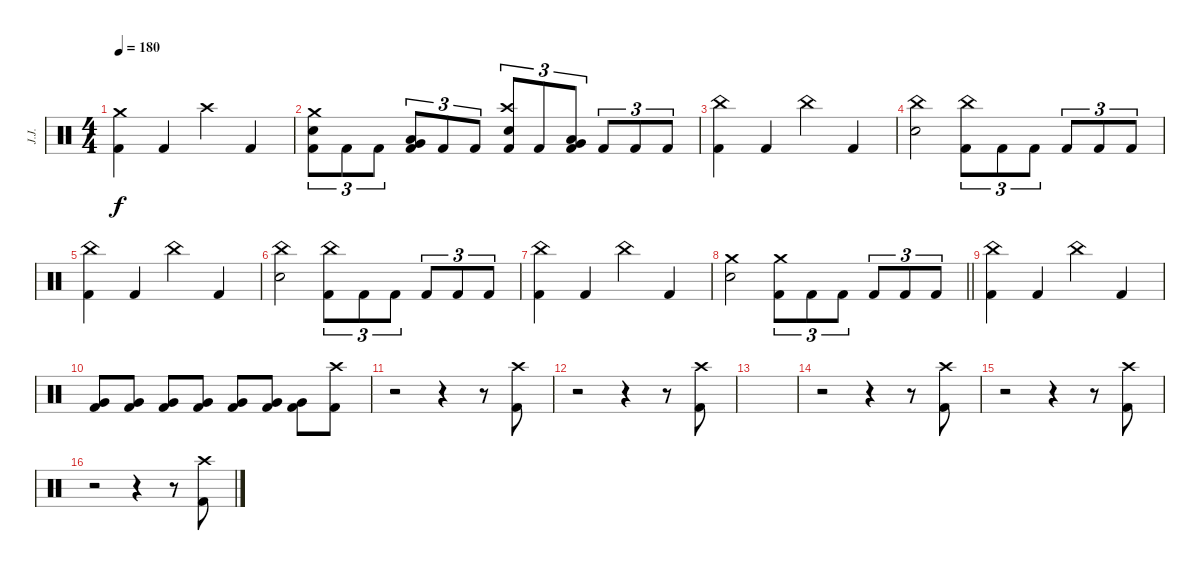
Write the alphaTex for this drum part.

\track ("J.J." "J.J.") {instrument percussion}
\staff {score}
\articulation defaults
\ts (4 4)
\tempo 180
\clef neutral
\ks c
("Crash medium (hit)" "Kick (hit) 2").4{dy f} "Kick (hit) 2".4 "Crash high (hit)".4 "Kick (hit) 2".4 |
("Crash medium (hit)" "Electric Snare (hit)" "Kick (hit) 2").8{tu (3 2)} "Kick (hit) 2".8{tu (3 2)} "Kick (hit) 2".8{tu (3 2)} ("Very Low Tom (hit)" "Low Floor Tom (hit)" "Kick (hit) 2").8{tu (3 2)} "Kick (hit) 2".8{tu (3 2)} "Kick (hit) 2".8{tu (3 2)} ("Crash high (hit)" "Electric Snare (hit)" "Kick (hit) 2").8{tu (3 2)} "Kick (hit) 2".8{tu (3 2)} ("Very Low Tom (hit)" "Low Floor Tom (hit)" "Kick (hit) 2").8{tu (3 2)} "Kick (hit) 2".8{tu (3 2)} "Kick (hit) 2".8{tu (3 2)} "Kick (hit) 2".8{tu (3 2)} |
("China (hit)" "Kick (hit) 2").4 "Kick (hit) 2".4 "China (hit)".4 "Kick (hit) 2".4 |
("China (hit)" "Electric Snare (hit)").2 ("China (hit)" "Kick (hit) 2").8{tu (3 2)} "Kick (hit) 2".8{tu (3 2)} "Kick (hit) 2".8{tu (3 2)} "Kick (hit) 2".8{tu (3 2)} "Kick (hit) 2".8{tu (3 2)} "Kick (hit) 2".8{tu (3 2)} |
("China (hit)" "Kick (hit) 2").4 "Kick (hit) 2".4 "China (hit)".4 "Kick (hit) 2".4 |
("China (hit)" "Electric Snare (hit)").2 ("China (hit)" "Kick (hit) 2").8{tu (3 2)} "Kick (hit) 2".8{tu (3 2)} "Kick (hit) 2".8{tu (3 2)} "Kick (hit) 2".8{tu (3 2)} "Kick (hit) 2".8{tu (3 2)} "Kick (hit) 2".8{tu (3 2)} |
("China (hit)" "Kick (hit) 2").4 "Kick (hit) 2".4 "China (hit)".4 "Kick (hit) 2".4 |
\barLineRight lightlight
("Crash medium (hit)" "Electric Snare (hit)").2 ("Crash medium (hit)" "Kick (hit) 2").8{tu (3 2)} "Kick (hit) 2".8{tu (3 2)} "Kick (hit) 2".8{tu (3 2)} "Kick (hit) 2".8{tu (3 2)} "Kick (hit) 2".8{tu (3 2)} "Kick (hit) 2".8{tu (3 2)} |
("China (hit)" "Kick (hit) 2").4 "Kick (hit) 2".4 "China (hit)".4 "Kick (hit) 2".4 |
("Very Low Tom (hit)" "Kick (hit) 2").8 ("Very Low Tom (hit)" "Kick (hit) 2").8 ("Very Low Tom (hit)" "Kick (hit) 2").8 ("Very Low Tom (hit)" "Kick (hit) 2").8 ("Very Low Tom (hit)" "Kick (hit) 2").8 ("Very Low Tom (hit)" "Kick (hit) 2").8 ("Very Low Tom (hit)" "Kick (hit) 2").8 ("Crash high (hit)" "Kick (hit) 2").8 |
r.2 r.4 r.8 ("Crash high (hit)" "Kick (hit) 2").8 |
r.2 r.4 r.8 ("Crash high (hit)" "Kick (hit) 2").8 |
|
r.2 r.4 r.8 ("Crash high (hit)" "Kick (hit) 2").8 |
r.2 r.4 r.8 ("Crash high (hit)" "Kick (hit) 2").8 |
r.2 r.4 r.8 ("Crash high (hit)" "Kick (hit) 2").8
